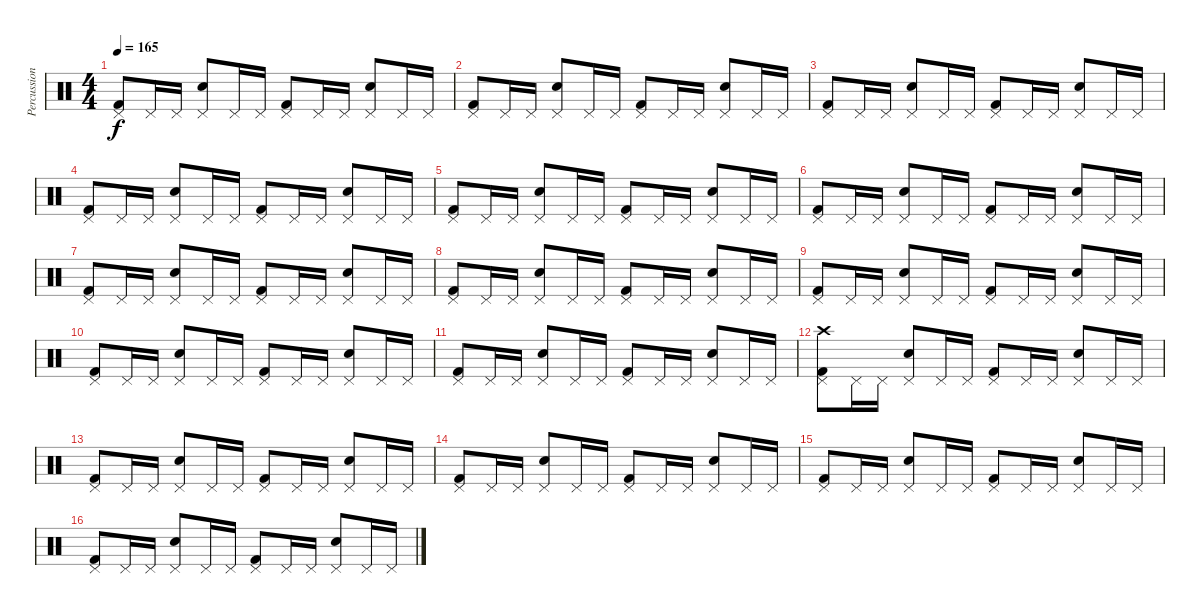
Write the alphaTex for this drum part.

\track ("Percussion" "Percussion") {instrument percussion}
\staff {score}
\articulation defaults
\ts (4 4)
\tempo 165
\clef neutral
\ks c
("Pedal Hi-Hat (hit)" "Kick (hit) 2").8{dy f} "Pedal Hi-Hat (hit)".16 "Pedal Hi-Hat (hit)".16 ("Pedal Hi-Hat (hit)" "Snare (hit) 2").8 "Pedal Hi-Hat (hit)".16 "Pedal Hi-Hat (hit)".16 ("Pedal Hi-Hat (hit)" "Kick (hit) 2").8 "Pedal Hi-Hat (hit)".16 "Pedal Hi-Hat (hit)".16 ("Pedal Hi-Hat (hit)" "Snare (hit) 2").8 "Pedal Hi-Hat (hit)".16 "Pedal Hi-Hat (hit)".16 |
("Pedal Hi-Hat (hit)" "Kick (hit) 2").8 "Pedal Hi-Hat (hit)".16 "Pedal Hi-Hat (hit)".16 ("Pedal Hi-Hat (hit)" "Snare (hit) 2").8 "Pedal Hi-Hat (hit)".16 "Pedal Hi-Hat (hit)".16 ("Pedal Hi-Hat (hit)" "Kick (hit) 2").8 "Pedal Hi-Hat (hit)".16 "Pedal Hi-Hat (hit)".16 ("Pedal Hi-Hat (hit)" "Snare (hit) 2").8 "Pedal Hi-Hat (hit)".16 "Pedal Hi-Hat (hit)".16 |
("Pedal Hi-Hat (hit)" "Kick (hit) 2").8 "Pedal Hi-Hat (hit)".16 "Pedal Hi-Hat (hit)".16 ("Pedal Hi-Hat (hit)" "Snare (hit) 2").8 "Pedal Hi-Hat (hit)".16 "Pedal Hi-Hat (hit)".16 ("Pedal Hi-Hat (hit)" "Kick (hit) 2").8 "Pedal Hi-Hat (hit)".16 "Pedal Hi-Hat (hit)".16 ("Pedal Hi-Hat (hit)" "Snare (hit) 2").8 "Pedal Hi-Hat (hit)".16 "Pedal Hi-Hat (hit)".16 |
("Pedal Hi-Hat (hit)" "Kick (hit) 2").8 "Pedal Hi-Hat (hit)".16 "Pedal Hi-Hat (hit)".16 ("Pedal Hi-Hat (hit)" "Snare (hit) 2").8 "Pedal Hi-Hat (hit)".16 "Pedal Hi-Hat (hit)".16 ("Pedal Hi-Hat (hit)" "Kick (hit) 2").8 "Pedal Hi-Hat (hit)".16 "Pedal Hi-Hat (hit)".16 ("Pedal Hi-Hat (hit)" "Snare (hit) 2").8 "Pedal Hi-Hat (hit)".16 "Pedal Hi-Hat (hit)".16 |
("Pedal Hi-Hat (hit)" "Kick (hit) 2").8 "Pedal Hi-Hat (hit)".16 "Pedal Hi-Hat (hit)".16 ("Pedal Hi-Hat (hit)" "Snare (hit) 2").8 "Pedal Hi-Hat (hit)".16 "Pedal Hi-Hat (hit)".16 ("Pedal Hi-Hat (hit)" "Kick (hit) 2").8 "Pedal Hi-Hat (hit)".16 "Pedal Hi-Hat (hit)".16 ("Pedal Hi-Hat (hit)" "Snare (hit) 2").8 "Pedal Hi-Hat (hit)".16 "Pedal Hi-Hat (hit)".16 |
("Pedal Hi-Hat (hit)" "Kick (hit) 2").8 "Pedal Hi-Hat (hit)".16 "Pedal Hi-Hat (hit)".16 ("Pedal Hi-Hat (hit)" "Snare (hit) 2").8 "Pedal Hi-Hat (hit)".16 "Pedal Hi-Hat (hit)".16 ("Pedal Hi-Hat (hit)" "Kick (hit) 2").8 "Pedal Hi-Hat (hit)".16 "Pedal Hi-Hat (hit)".16 ("Pedal Hi-Hat (hit)" "Snare (hit) 2").8 "Pedal Hi-Hat (hit)".16 "Pedal Hi-Hat (hit)".16 |
("Pedal Hi-Hat (hit)" "Kick (hit) 2").8 "Pedal Hi-Hat (hit)".16 "Pedal Hi-Hat (hit)".16 ("Pedal Hi-Hat (hit)" "Snare (hit) 2").8 "Pedal Hi-Hat (hit)".16 "Pedal Hi-Hat (hit)".16 ("Pedal Hi-Hat (hit)" "Kick (hit) 2").8 "Pedal Hi-Hat (hit)".16 "Pedal Hi-Hat (hit)".16 ("Pedal Hi-Hat (hit)" "Snare (hit) 2").8 "Pedal Hi-Hat (hit)".16 "Pedal Hi-Hat (hit)".16 |
("Pedal Hi-Hat (hit)" "Kick (hit) 2").8 "Pedal Hi-Hat (hit)".16 "Pedal Hi-Hat (hit)".16 ("Pedal Hi-Hat (hit)" "Snare (hit) 2").8 "Pedal Hi-Hat (hit)".16 "Pedal Hi-Hat (hit)".16 ("Pedal Hi-Hat (hit)" "Kick (hit) 2").8 "Pedal Hi-Hat (hit)".16 "Pedal Hi-Hat (hit)".16 ("Pedal Hi-Hat (hit)" "Snare (hit) 2").8 "Pedal Hi-Hat (hit)".16 "Pedal Hi-Hat (hit)".16 |
("Pedal Hi-Hat (hit)" "Kick (hit) 2").8 "Pedal Hi-Hat (hit)".16 "Pedal Hi-Hat (hit)".16 ("Pedal Hi-Hat (hit)" "Snare (hit) 2").8 "Pedal Hi-Hat (hit)".16 "Pedal Hi-Hat (hit)".16 ("Pedal Hi-Hat (hit)" "Kick (hit) 2").8 "Pedal Hi-Hat (hit)".16 "Pedal Hi-Hat (hit)".16 ("Pedal Hi-Hat (hit)" "Snare (hit) 2").8 "Pedal Hi-Hat (hit)".16 "Pedal Hi-Hat (hit)".16 |
("Pedal Hi-Hat (hit)" "Kick (hit) 2").8 "Pedal Hi-Hat (hit)".16 "Pedal Hi-Hat (hit)".16 ("Pedal Hi-Hat (hit)" "Snare (hit) 2").8 "Pedal Hi-Hat (hit)".16 "Pedal Hi-Hat (hit)".16 ("Pedal Hi-Hat (hit)" "Kick (hit) 2").8 "Pedal Hi-Hat (hit)".16 "Pedal Hi-Hat (hit)".16 ("Pedal Hi-Hat (hit)" "Snare (hit) 2").8 "Pedal Hi-Hat (hit)".16 "Pedal Hi-Hat (hit)".16 |
("Pedal Hi-Hat (hit)" "Kick (hit) 2").8 "Pedal Hi-Hat (hit)".16 "Pedal Hi-Hat (hit)".16 ("Pedal Hi-Hat (hit)" "Snare (hit) 2").8 "Pedal Hi-Hat (hit)".16 "Pedal Hi-Hat (hit)".16 ("Pedal Hi-Hat (hit)" "Kick (hit) 2").8 "Pedal Hi-Hat (hit)".16 "Pedal Hi-Hat (hit)".16 ("Pedal Hi-Hat (hit)" "Snare (hit) 2").8 "Pedal Hi-Hat (hit)".16 "Pedal Hi-Hat (hit)".16 |
("Pedal Hi-Hat (hit)" "Kick (hit) 2" "Crash high (hit)").8 "Pedal Hi-Hat (hit)".16 "Pedal Hi-Hat (hit)".16 ("Pedal Hi-Hat (hit)" "Snare (hit) 2").8 "Pedal Hi-Hat (hit)".16 "Pedal Hi-Hat (hit)".16 ("Pedal Hi-Hat (hit)" "Kick (hit) 2").8 "Pedal Hi-Hat (hit)".16 "Pedal Hi-Hat (hit)".16 ("Pedal Hi-Hat (hit)" "Snare (hit) 2").8 "Pedal Hi-Hat (hit)".16 "Pedal Hi-Hat (hit)".16 |
("Pedal Hi-Hat (hit)" "Kick (hit) 2").8 "Pedal Hi-Hat (hit)".16 "Pedal Hi-Hat (hit)".16 ("Pedal Hi-Hat (hit)" "Snare (hit) 2").8 "Pedal Hi-Hat (hit)".16 "Pedal Hi-Hat (hit)".16 ("Pedal Hi-Hat (hit)" "Kick (hit) 2").8 "Pedal Hi-Hat (hit)".16 "Pedal Hi-Hat (hit)".16 ("Pedal Hi-Hat (hit)" "Snare (hit) 2").8 "Pedal Hi-Hat (hit)".16 "Pedal Hi-Hat (hit)".16 |
("Pedal Hi-Hat (hit)" "Kick (hit) 2").8 "Pedal Hi-Hat (hit)".16 "Pedal Hi-Hat (hit)".16 ("Pedal Hi-Hat (hit)" "Snare (hit) 2").8 "Pedal Hi-Hat (hit)".16 "Pedal Hi-Hat (hit)".16 ("Pedal Hi-Hat (hit)" "Kick (hit) 2").8 "Pedal Hi-Hat (hit)".16 "Pedal Hi-Hat (hit)".16 ("Pedal Hi-Hat (hit)" "Snare (hit) 2").8 "Pedal Hi-Hat (hit)".16 "Pedal Hi-Hat (hit)".16 |
("Pedal Hi-Hat (hit)" "Kick (hit) 2").8 "Pedal Hi-Hat (hit)".16 "Pedal Hi-Hat (hit)".16 ("Pedal Hi-Hat (hit)" "Snare (hit) 2").8 "Pedal Hi-Hat (hit)".16 "Pedal Hi-Hat (hit)".16 ("Pedal Hi-Hat (hit)" "Kick (hit) 2").8 "Pedal Hi-Hat (hit)".16 "Pedal Hi-Hat (hit)".16 ("Pedal Hi-Hat (hit)" "Snare (hit) 2").8 "Pedal Hi-Hat (hit)".16 "Pedal Hi-Hat (hit)".16 |
("Pedal Hi-Hat (hit)" "Kick (hit) 2").8 "Pedal Hi-Hat (hit)".16 "Pedal Hi-Hat (hit)".16 ("Pedal Hi-Hat (hit)" "Snare (hit) 2").8 "Pedal Hi-Hat (hit)".16 "Pedal Hi-Hat (hit)".16 ("Pedal Hi-Hat (hit)" "Kick (hit) 2").8 "Pedal Hi-Hat (hit)".16 "Pedal Hi-Hat (hit)".16 ("Pedal Hi-Hat (hit)" "Snare (hit) 2").8 "Pedal Hi-Hat (hit)".16 "Pedal Hi-Hat (hit)".16
